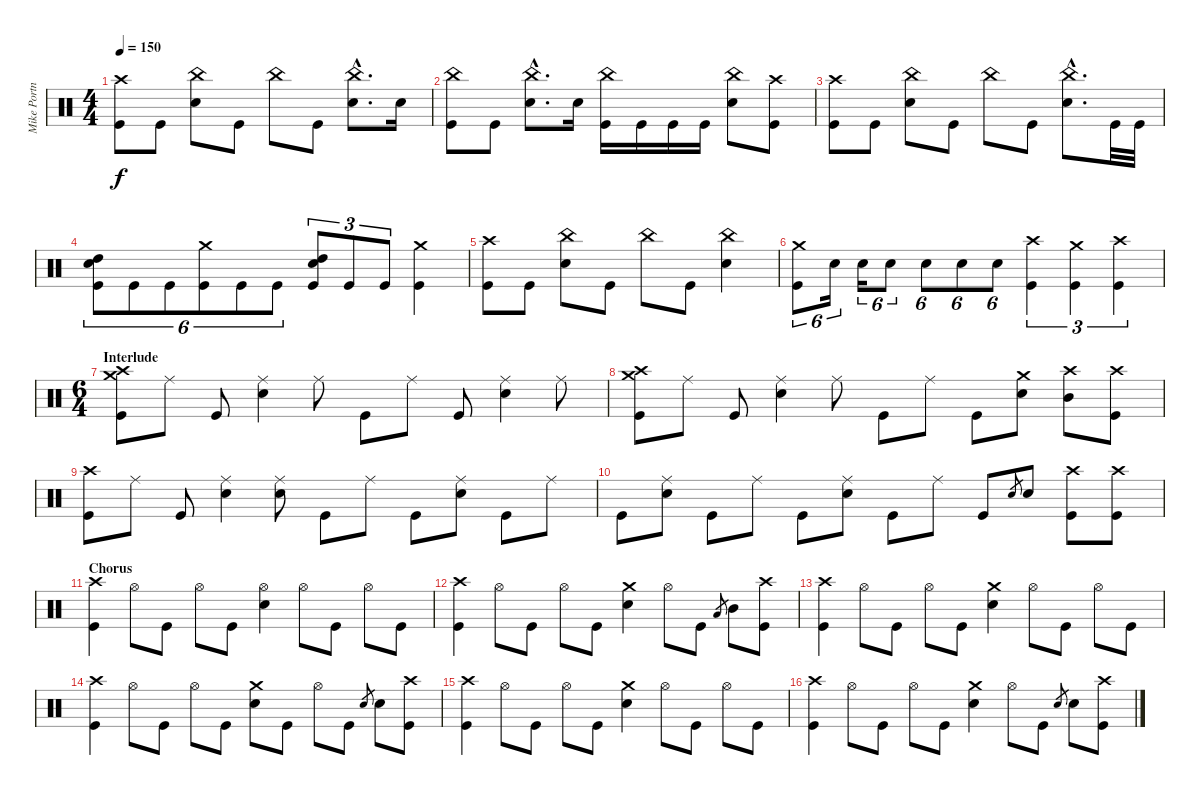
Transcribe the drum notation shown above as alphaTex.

\track ("Mike Portnoy" "Mike Portn") {instrument percussion}
\staff {score}
\articulation defaults
\ts (4 4)
\tempo 150
\clef neutral
\ks c
("Crash high (hit)" "Kick (hit)").8{dy f} "Kick (hit)".8 ("China (hit)" "Electric Snare (hit)").8 "Kick (hit)".8 "China (hit)".8 "Kick (hit)".8 ("China (hit)"{hac} "Electric Snare (hit)"{hac}).8{d} "Electric Snare (hit)".16 |
("China (hit)" "Kick (hit)").8 "Kick (hit)".8 ("China (hit)"{hac} "Electric Snare (hit)"{hac}).8{d} "Electric Snare (hit)".16 ("China (hit)" "Kick (hit)").16 "Kick (hit)".16 "Kick (hit)".16 "Kick (hit)".16 ("China (hit)" "Electric Snare (hit)").8 ("Crash high (hit)" "Kick (hit)").8 |
("Crash high (hit)" "Kick (hit)").8 "Kick (hit)".8 ("China (hit)" "Electric Snare (hit)").8 "Kick (hit)".8 "China (hit)".8 "Kick (hit)".8 ("China (hit)"{hac} "Electric Snare (hit)"{hac}).8{d} "Kick (hit)".32 "Kick (hit)".32 |
("High Tom (hit)" "Electric Snare (hit)" "Kick (hit)").8{tu (6 4)} "Kick (hit)".8{tu (6 4)} "Kick (hit)".8{tu (6 4)} ("Crash medium (hit)" "Kick (hit)").8{tu (6 4)} "Kick (hit)".8{tu (6 4)} "Kick (hit)".8{tu (6 4)} ("High Tom (hit)" "Electric Snare (hit)" "Kick (hit)").8{tu (3 2)} "Kick (hit)".8{tu (3 2)} "Kick (hit)".8{tu (3 2)} ("Crash medium (hit)" "Kick (hit)").4 |
("Crash high (hit)" "Kick (hit)").8 "Kick (hit)".8 ("China (hit)" "Electric Snare (hit)").8 "Kick (hit)".8 "China (hit)".8 "Kick (hit)".8 ("China (hit)" "Electric Snare (hit)").4 |
("Crash medium (hit)" "Kick (hit)").8{tu (6 4)} "Electric Snare (hit)".16{tu (6 4)} "Electric Snare (hit)".16{tu (6 4)} "Electric Snare (hit)".8{tu (6 4)} "Electric Snare (hit)".8{tu (6 4)} "Electric Snare (hit)".8{tu (6 4)} "Electric Snare (hit)".8{tu (6 4)} ("Crash high (hit)" "Kick (hit)").4{tu (3 2)} ("Crash medium (hit)" "Kick (hit)").4{tu (3 2)} ("Crash high (hit)" "Kick (hit)").4{tu (3 2)} |
\ts (6 4)
\section ("" "Interlude")
("Crash high (hit)" "Crash medium (hit)" "Kick (hit)").8 "Ride (middle)".8 "Kick (hit)".8 ("Ride (middle)" "Electric Snare (hit)").4 "Ride (middle)".8 "Kick (hit)".8 "Ride (middle)".8 "Kick (hit)".8 ("Ride (middle)" "Electric Snare (hit)").4 "Ride (middle)".8 |
("Crash high (hit)" "Crash medium (hit)" "Kick (hit)").8 "Ride (middle)".8 "Kick (hit)".8 ("Ride (middle)" "Electric Snare (hit)").4 "Ride (middle)".8 "Kick (hit)".8 "Ride (middle)".8 "Kick (hit)".8 ("Crash medium (hit)" "Electric Snare (hit)").8 ("Crash high (hit)" "Mid Tom (hit)").8 ("Crash high (hit)" "Kick (hit)").8 |
("Crash high (hit)" "Kick (hit)").8 "Ride (middle)".8 "Kick (hit)".8 ("Ride (middle)" "Electric Snare (hit)").4 ("Ride (middle)" "Electric Snare (hit)").8 "Kick (hit)".8 "Ride (middle)".8 "Kick (hit)".8 ("Ride (middle)" "Electric Snare (hit)").8 "Kick (hit)".8 "Ride (middle)".8 |
"Kick (hit)".8 ("Ride (middle)" "Electric Snare (hit)").8 "Kick (hit)".8 "Ride (middle)".8 "Kick (hit)".8 ("Ride (middle)" "Electric Snare (hit)").8 "Kick (hit)".8 "Ride (middle)".8 "Kick (hit)".8 "Electric Snare (hit)".8{gr} "Electric Snare (hit)".8 ("Crash high (hit)" "Kick (hit)").8 ("Crash high (hit)" "Kick (hit)").8 |
\section ("" "Chorus")
("Crash high (hit)" "Kick (hit)").4 "Hi-Hat (open)".8 "Kick (hit)".8 "Hi-Hat (open)".8 "Kick (hit)".8 ("Hi-Hat (open)" "Electric Snare (hit)").4 "Hi-Hat (open)".8 "Kick (hit)".8 "Hi-Hat (open)".8 "Kick (hit)".8 |
("Crash high (hit)" "Kick (hit)").4 "Hi-Hat (open)".8 "Kick (hit)".8 "Hi-Hat (open)".8 "Kick (hit)".8 ("Crash medium (hit)" "Electric Snare (hit)").4 "Hi-Hat (open)".8 "Kick (hit)".8 "Low Tom (hit)".8{gr} "Mid Tom (hit)".8 ("Crash high (hit)" "Kick (hit)").8 |
("Crash high (hit)" "Kick (hit)").4 "Hi-Hat (open)".8 "Kick (hit)".8 "Hi-Hat (open)".8 "Kick (hit)".8 ("Crash medium (hit)" "Electric Snare (hit)").4 "Hi-Hat (open)".8 "Kick (hit)".8 "Hi-Hat (open)".8 "Kick (hit)".8 |
("Crash high (hit)" "Kick (hit)").4 "Hi-Hat (open)".8 "Kick (hit)".8 "Hi-Hat (open)".8 "Kick (hit)".8 ("Crash medium (hit)" "Electric Snare (hit)").8 "Kick (hit)".8 "Hi-Hat (open)".8 "Kick (hit)".8 "Electric Snare (hit)".8{gr} "Electric Snare (hit)".8 ("Crash high (hit)" "Kick (hit)").8 |
("Crash high (hit)" "Kick (hit)").4 "Hi-Hat (open)".8 "Kick (hit)".8 "Hi-Hat (open)".8 "Kick (hit)".8 ("Crash medium (hit)" "Electric Snare (hit)").4 "Hi-Hat (open)".8 "Kick (hit)".8 "Hi-Hat (open)".8 "Kick (hit)".8 |
("Crash high (hit)" "Kick (hit)").4 "Hi-Hat (open)".8 "Kick (hit)".8 "Hi-Hat (open)".8 "Kick (hit)".8 ("Crash medium (hit)" "Electric Snare (hit)").4 "Hi-Hat (open)".8 "Kick (hit)".8 "Electric Snare (hit)".8{gr} "Electric Snare (hit)".8 ("Crash high (hit)" "Kick (hit)").8
